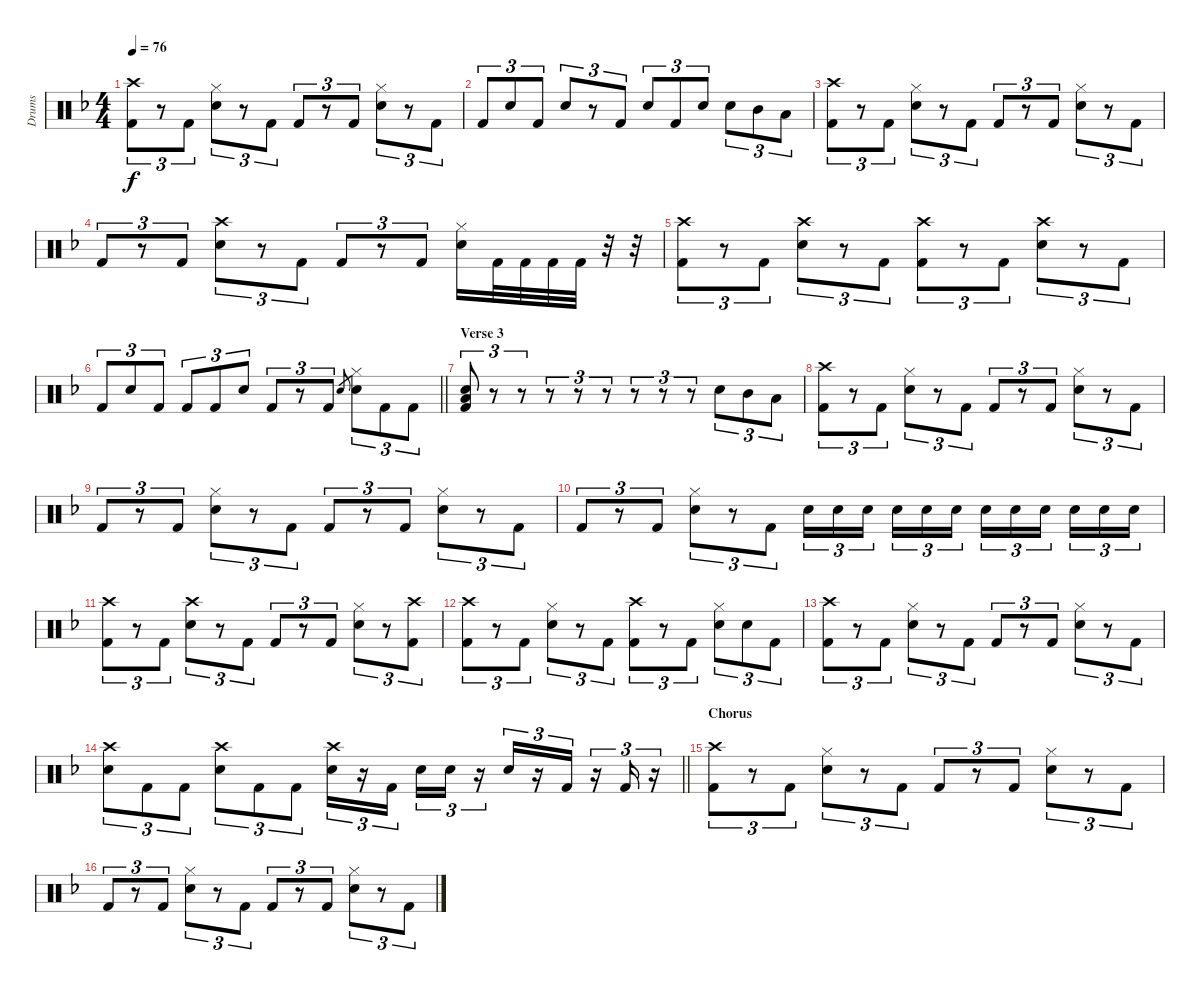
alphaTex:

\track ("Drums" "Drums") {instrument percussion}
\staff {score}
\articulation defaults
\ts (4 4)
\tempo 76
\clef neutral
\ks f
("Crash high (hit)" "Kick (hit) 2").8{tu (3 2) dy f} r.8{tu (3 2)} "Kick (hit) 2".8{tu (3 2)} ("Hi-Hat (closed)" "Electric Snare (hit)").8{tu (3 2)} r.8{tu (3 2)} "Kick (hit) 2".8{tu (3 2)} "Kick (hit) 2".8{tu (3 2)} r.8{tu (3 2)} "Kick (hit) 2".8{tu (3 2)} ("Hi-Hat (closed)" "Electric Snare (hit)").8{tu (3 2)} r.8{tu (3 2)} "Kick (hit) 2".8{tu (3 2)} |
"Kick (hit) 2".8{tu (3 2)} "Electric Snare (hit)".8{tu (3 2)} "Kick (hit) 2".8{tu (3 2)} "Electric Snare (hit)".8{tu (3 2)} r.8{tu (3 2)} "Kick (hit) 2".8{tu (3 2)} "Electric Snare (hit)".8{tu (3 2)} "Kick (hit) 2".8{tu (3 2)} "Electric Snare (hit)".8{tu (3 2)} "Electric Snare (hit)".8{tu (3 2)} "Mid Tom (hit)".8{tu (3 2)} "Low Tom (hit)".8{tu (3 2)} |
("Crash high (hit)" "Kick (hit) 2").8{tu (3 2)} r.8{tu (3 2)} "Kick (hit) 2".8{tu (3 2)} ("Hi-Hat (closed)" "Electric Snare (hit)").8{tu (3 2)} r.8{tu (3 2)} "Kick (hit) 2".8{tu (3 2)} "Kick (hit) 2".8{tu (3 2)} r.8{tu (3 2)} "Kick (hit) 2".8{tu (3 2)} ("Hi-Hat (closed)" "Electric Snare (hit)").8{tu (3 2)} r.8{tu (3 2)} "Kick (hit) 2".8{tu (3 2)} |
"Kick (hit) 2".8{tu (3 2)} r.8{tu (3 2)} "Kick (hit) 2".8{tu (3 2)} ("Crash high (hit)" "Electric Snare (hit)").8{tu (3 2)} r.8{tu (3 2)} "Kick (hit) 2".8{tu (3 2)} "Kick (hit) 2".8{tu (3 2)} r.8{tu (3 2)} "Kick (hit) 2".8{tu (3 2)} ("Hi-Hat (closed)" "Electric Snare (hit)").16 "Kick (hit) 2".32 "Kick (hit) 2".32 "Kick (hit) 2".32 "Kick (hit) 2".32 r.32 r.32 |
("Crash high (hit)" "Kick (hit) 2").8{tu (3 2)} r.8{tu (3 2)} "Kick (hit) 2".8{tu (3 2)} ("Crash high (hit)" "Electric Snare (hit)").8{tu (3 2)} r.8{tu (3 2)} "Kick (hit) 2".8{tu (3 2)} ("Crash high (hit)" "Kick (hit) 2").8{tu (3 2)} r.8{tu (3 2)} "Kick (hit) 2".8{tu (3 2)} ("Crash high (hit)" "Electric Snare (hit)").8{tu (3 2)} r.8{tu (3 2)} "Kick (hit) 2".8{tu (3 2)} |
\barLineRight lightlight "Kick (hit) 2".8{tu (3 2)} "Electric Snare (hit)".8{tu (3 2)} "Kick (hit) 2".8{tu (3 2)} "Kick (hit) 2".8{tu (3 2)} "Kick (hit) 2".8{tu (3 2)} "Electric Snare (hit)".8{tu (3 2)} "Kick (hit) 2".8{tu (3 2)}
r.8{tu (3 2)} "Kick (hit) 2".8{tu (3 2)} "Electric Snare (hit)".8{gr} ("Hi-Hat (closed)" "Electric Snare (hit)").8{tu (3 2)} "Kick (hit) 2".8{tu (3 2)} "Kick (hit) 2".8{tu (3 2)} |
\section ("" "Verse 3")
("Snare (hit) 2" "Low Floor Tom (hit)" "Kick (hit) 2").8{tu (3 2)} r.8{tu (3 2)} r.8{tu (3 2)} r.8{tu (3 2)} r.8{tu (3 2)} r.8{tu (3 2)} r.8{tu (3 2)} r.8{tu (3 2)} r.8{tu (3 2)} "Electric Snare (hit)".8{tu (3 2)} "Mid Tom (hit)".8{tu (3 2)} "Low Tom (hit)".8{tu (3 2)} |
("Crash high (hit)" "Kick (hit) 2").8{tu (3 2)} r.8{tu (3 2)} "Kick (hit) 2".8{tu (3 2)} ("Hi-Hat (closed)" "Electric Snare (hit)").8{tu (3 2)} r.8{tu (3 2)} "Kick (hit) 2".8{tu (3 2)} "Kick (hit) 2".8{tu (3 2)} r.8{tu (3 2)} "Kick (hit) 2".8{tu (3 2)} ("Hi-Hat (closed)" "Electric Snare (hit)").8{tu (3 2)} r.8{tu (3 2)} "Kick (hit) 2".8{tu (3 2)} |
"Kick (hit) 2".8{tu (3 2)} r.8{tu (3 2)} "Kick (hit) 2".8{tu (3 2)} ("Hi-Hat (closed)" "Electric Snare (hit)").8{tu (3 2)} r.8{tu (3 2)} "Kick (hit) 2".8{tu (3 2)} "Kick (hit) 2".8{tu (3 2)} r.8{tu (3 2)} "Kick (hit) 2".8{tu (3 2)} ("Hi-Hat (closed)" "Electric Snare (hit)").8{tu (3 2)} r.8{tu (3 2)} "Kick (hit) 2".8{tu (3 2)} |
"Kick (hit) 2".8{tu (3 2)} r.8{tu (3 2)} "Kick (hit) 2".8{tu (3 2)} ("Hi-Hat (closed)" "Electric Snare (hit)").8{tu (3 2)} r.8{tu (3 2)} "Kick (hit) 2".8{tu (3 2)} "Electric Snare (hit)".16{tu (3 2)} "Electric Snare (hit)".16{tu (3 2)} "Electric Snare (hit)".16{tu (3 2) beam splitsecondary} "Electric Snare (hit)".16{tu (3 2)} "Electric Snare (hit)".16{tu (3 2)} "Electric Snare (hit)".16{tu (3 2)} "Electric Snare (hit)".16{tu (3 2)} "Electric Snare (hit)".16{tu (3 2)} "Electric Snare (hit)".16{tu (3 2) beam splitsecondary} "Electric Snare (hit)".16{tu (3 2)} "Electric Snare (hit)".16{tu (3 2)} "Electric Snare (hit)".16{tu (3 2)} |
("Crash high (hit)" "Kick (hit) 2").8{tu (3 2)} r.8{tu (3 2)} "Kick (hit) 2".8{tu (3 2)} ("Crash high (hit)" "Electric Snare (hit)").8{tu (3 2)} r.8{tu (3 2)} "Kick (hit) 2".8{tu (3 2)} "Kick (hit) 2".8{tu (3 2)} r.8{tu (3 2)} "Kick (hit) 2".8{tu (3 2)} ("Hi-Hat (closed)" "Electric Snare (hit)").8{tu (3 2)} r.8{tu (3 2)} ("Crash high (hit)" "Kick (hit) 2").8{tu (3 2)} |
("Crash high (hit)" "Kick (hit) 2").8{tu (3 2)} r.8{tu (3 2)} "Kick (hit) 2".8{tu (3 2)} ("Hi-Hat (closed)" "Electric Snare (hit)").8{tu (3 2)} r.8{tu (3 2)} "Kick (hit) 2".8{tu (3 2)} ("Crash high (hit)" "Kick (hit) 2").8{tu (3 2)} r.8{tu (3 2)} "Kick (hit) 2".8{tu (3 2)} ("Hi-Hat (closed)" "Electric Snare (hit)").8{tu (3 2)} "Electric Snare (hit)".8{tu (3 2)} "Kick (hit) 2".8{tu (3 2)} |
("Crash high (hit)" "Kick (hit) 2").8{tu (3 2)} r.8{tu (3 2)} "Kick (hit) 2".8{tu (3 2)} ("Hi-Hat (closed)" "Electric Snare (hit)").8{tu (3 2)} r.8{tu (3 2)} "Kick (hit) 2".8{tu (3 2)} "Kick (hit) 2".8{tu (3 2)} r.8{tu (3 2)} "Kick (hit) 2".8{tu (3 2)} ("Hi-Hat (closed)" "Electric Snare (hit)").8{tu (3 2)} r.8{tu (3 2)} "Kick (hit) 2".8{tu (3 2)} |
\barLineRight lightlight
("Crash high (hit)" "Electric Snare (hit)").8{tu (3 2)} "Kick (hit) 2".8{tu (3 2)} "Kick (hit) 2".8{tu (3 2)} ("Crash high (hit)" "Electric Snare (hit)").8{tu (3 2)} "Kick (hit) 2".8{tu (3 2)} "Kick (hit) 2".8{tu (3 2)} ("Crash high (hit)" "Electric Snare (hit)").16{tu (3 2)} r.16{tu (3 2)} "Kick (hit) 2".16{tu (3 2) beam splitsecondary} "Electric Snare (hit)".16{tu (3 2)} "Electric Snare (hit)".16{tu (3 2)} r.16{tu (3 2)} "Electric Snare (hit)".16{tu (3 2)} r.16{tu (3 2)} "Kick (hit) 2".16{tu (3 2)} r.16{tu (3 2)} "Kick (hit) 2".16{tu (3 2)} r.16{tu (3 2)} |
\section ("" "Chorus")
("Crash high (hit)" "Kick (hit) 2").8{tu (3 2)} r.8{tu (3 2)} "Kick (hit) 2".8{tu (3 2)} ("Hi-Hat (closed)" "Electric Snare (hit)").8{tu (3 2)} r.8{tu (3 2)} "Kick (hit) 2".8{tu (3 2)} "Kick (hit) 2".8{tu (3 2)} r.8{tu (3 2)} "Kick (hit) 2".8{tu (3 2)} ("Hi-Hat (closed)" "Electric Snare (hit)").8{tu (3 2)} r.8{tu (3 2)} "Kick (hit) 2".8{tu (3 2)} |
"Kick (hit) 2".8{tu (3 2)} r.8{tu (3 2)} "Kick (hit) 2".8{tu (3 2)} ("Hi-Hat (closed)" "Electric Snare (hit)").8{tu (3 2)} r.8{tu (3 2)} "Kick (hit) 2".8{tu (3 2)} "Kick (hit) 2".8{tu (3 2)} r.8{tu (3 2)} "Kick (hit) 2".8{tu (3 2)} ("Hi-Hat (closed)" "Electric Snare (hit)").8{tu (3 2)} r.8{tu (3 2)} "Kick (hit) 2".8{tu (3 2)}
